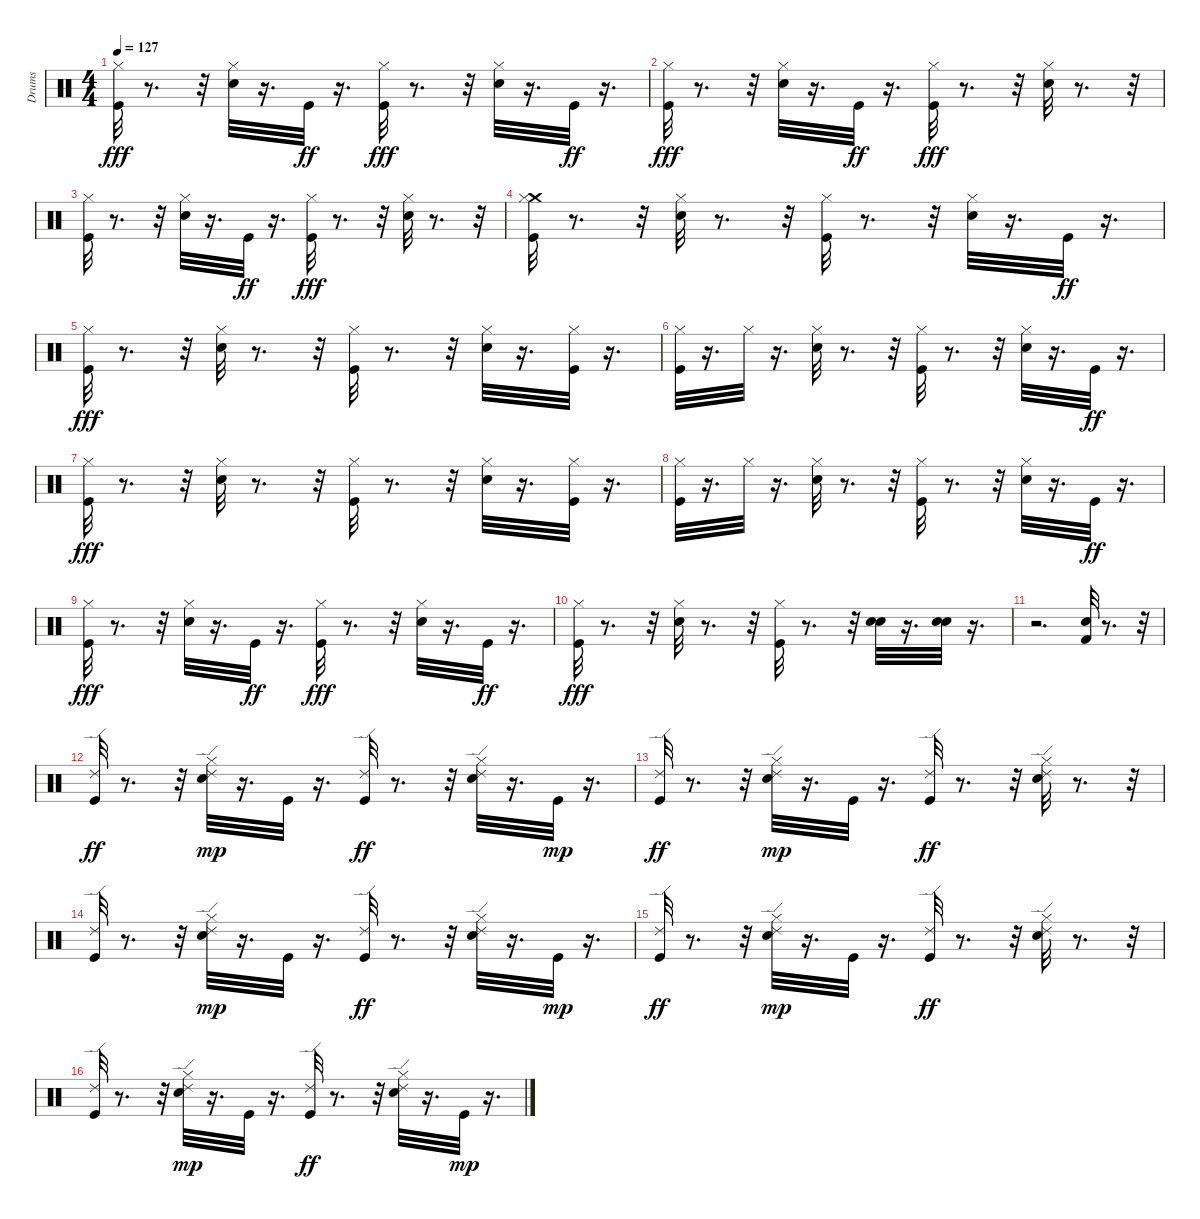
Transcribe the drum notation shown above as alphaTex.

\track (" Drums" " Drums") {instrument percussion}
\staff {score}
\articulation defaults
\ts (4 4)
\tempo 127
\clef neutral
\ks c
("Kick (hit)" "Hi-Hat (closed)").32{dy fff} r.8{d} r.32 ("Electric Snare (hit)" "Hi-Hat (closed)").32 r.16{d} "Kick (hit)".32{dy ff} r.16{d} ("Kick (hit)" "Hi-Hat (closed)").32{dy fff} r.8{d} r.32 ("Electric Snare (hit)" "Hi-Hat (closed)").32 r.16{d} "Kick (hit)".32{dy ff} r.16{d} |
("Kick (hit)" "Hi-Hat (closed)").32{dy fff} r.8{d} r.32 ("Electric Snare (hit)" "Hi-Hat (closed)").32 r.16{d} "Kick (hit)".32{dy ff} r.16{d} ("Kick (hit)" "Hi-Hat (closed)").32{dy fff} r.8{d} r.32 ("Electric Snare (hit)" "Hi-Hat (closed)").32 r.8{d} r.32 |
("Hi-Hat (closed)" "Kick (hit)").32 r.8{d} r.32 ("Electric Snare (hit)" "Hi-Hat (closed)").32 r.16{d} "Kick (hit)".32{dy ff} r.16{d} ("Kick (hit)" "Hi-Hat (closed)").32{dy fff} r.8{d} r.32 ("Electric Snare (hit)" "Hi-Hat (closed)").32 r.8{d} r.32 |
("Crash medium (hit)" "Kick (hit)" "Hi-Hat (closed)").32 r.8{d} r.32 ("Electric Snare (hit)" "Hi-Hat (closed)").32 r.8{d} r.32 ("Kick (hit)" "Hi-Hat (closed)").32 r.8{d} r.32 ("Electric Snare (hit)" "Hi-Hat (closed)").32 r.16{d} "Kick (hit)".32{dy ff} r.16{d} |
("Kick (hit)" "Hi-Hat (closed)").32{dy fff} r.8{d} r.32 ("Electric Snare (hit)" "Hi-Hat (closed)").32 r.8{d} r.32 ("Kick (hit)" "Hi-Hat (closed)").32 r.8{d} r.32 ("Electric Snare (hit)" "Hi-Hat (closed)").32 r.16{d} ("Kick (hit)" "Hi-Hat (closed)").32 r.16{d} |
("Kick (hit)" "Hi-Hat (closed)").32 r.16{d} "Hi-Hat (closed)".32 r.16{d} ("Electric Snare (hit)" "Hi-Hat (closed)").32 r.8{d} r.32 ("Kick (hit)" "Hi-Hat (closed)").32 r.8{d} r.32 ("Electric Snare (hit)" "Hi-Hat (closed)").32 r.16{d} "Kick (hit)".32{dy ff} r.16{d} |
("Hi-Hat (closed)" "Kick (hit)").32{dy fff} r.8{d} r.32 ("Electric Snare (hit)" "Hi-Hat (closed)").32 r.8{d} r.32 ("Kick (hit)" "Hi-Hat (closed)").32 r.8{d} r.32 ("Electric Snare (hit)" "Hi-Hat (closed)").32 r.16{d} ("Kick (hit)" "Hi-Hat (closed)").32 r.16{d} |
("Kick (hit)" "Hi-Hat (closed)").32 r.16{d} "Hi-Hat (closed)".32 r.16{d} ("Electric Snare (hit)" "Hi-Hat (closed)").32 r.8{d} r.32 ("Kick (hit)" "Hi-Hat (closed)").32 r.8{d} r.32 ("Electric Snare (hit)" "Hi-Hat (closed)").32 r.16{d} "Kick (hit)".32{dy ff} r.16{d} |
("Kick (hit)" "Hi-Hat (closed)").32{dy fff} r.8{d} r.32 ("Electric Snare (hit)" "Hi-Hat (closed)").32 r.16{d} "Kick (hit)".32{dy ff} r.16{d} ("Kick (hit)" "Hi-Hat (closed)").32{dy fff} r.8{d} r.32 ("Electric Snare (hit)" "Hi-Hat (closed)").32 r.16{d} "Kick (hit)".32{dy ff} r.16{d} |
("Hi-Hat (closed)" "Kick (hit)").32{dy fff} r.8{d} r.32 ("Hi-Hat (closed)" "Electric Snare (hit)").32 r.8{d} r.32 ("Kick (hit)" "Hi-Hat (closed)").32 r.8{d} r.32 ("Electric Snare (hit)" "Snare (hit) 2").32 r.16{d} ("Electric Snare (hit)" "Snare (hit) 2").32 r.16{d} |
r.2{d} ("Snare (hit) 2" "Kick (hit) 2").32 r.8{d} r.32 |
("Ride (edge) 2" "Kick (hit)").32{dy ff} r.8{d} r.32 ("Electric Snare (hit)" "Hi-Hat (closed)" "Ride (edge) 2").32{dy mp} r.16{d} "Kick (hit)".32 r.16{d} ("Kick (hit)" "Ride (edge) 2").32{dy ff} r.8{d} r.32 ("Electric Snare (hit)" "Hi-Hat (closed)" "Ride (edge) 2").32 r.16{d} "Kick (hit)".32{dy mp} r.16{d} |
("Kick (hit)" "Ride (edge) 2").32{dy ff} r.8{d} r.32 ("Electric Snare (hit)" "Hi-Hat (closed)" "Ride (edge) 2").32{dy mp} r.16{d} "Kick (hit)".32 r.16{d} ("Kick (hit)" "Ride (edge) 2").32{dy ff} r.8{d} r.32 ("Electric Snare (hit)" "Hi-Hat (closed)" "Ride (edge) 2").32 r.8{d} r.32 |
("Kick (hit)" "Ride (edge) 2").32 r.8{d} r.32 ("Electric Snare (hit)" "Hi-Hat (closed)" "Ride (edge) 2").32{dy mp} r.16{d} "Kick (hit)".32 r.16{d} ("Kick (hit)" "Ride (edge) 2").32{dy ff} r.8{d} r.32 ("Electric Snare (hit)" "Hi-Hat (closed)" "Ride (edge) 2").32 r.16{d} "Kick (hit)".32{dy mp} r.16{d} |
("Kick (hit)" "Ride (edge) 2").32{dy ff} r.8{d} r.32 ("Electric Snare (hit)" "Hi-Hat (closed)" "Ride (edge) 2").32{dy mp} r.16{d} "Kick (hit)".32 r.16{d} ("Kick (hit)" "Ride (edge) 2").32{dy ff} r.8{d} r.32 ("Electric Snare (hit)" "Hi-Hat (closed)" "Ride (edge) 2").32 r.8{d} r.32 |
("Kick (hit)" "Ride (edge) 2").32 r.8{d} r.32 ("Electric Snare (hit)" "Hi-Hat (closed)" "Ride (edge) 2").32{dy mp} r.16{d} "Kick (hit)".32 r.16{d} ("Kick (hit)" "Ride (edge) 2").32{dy ff} r.8{d} r.32 ("Electric Snare (hit)" "Hi-Hat (closed)" "Ride (edge) 2").32 r.16{d} "Kick (hit)".32{dy mp} r.16{d}
